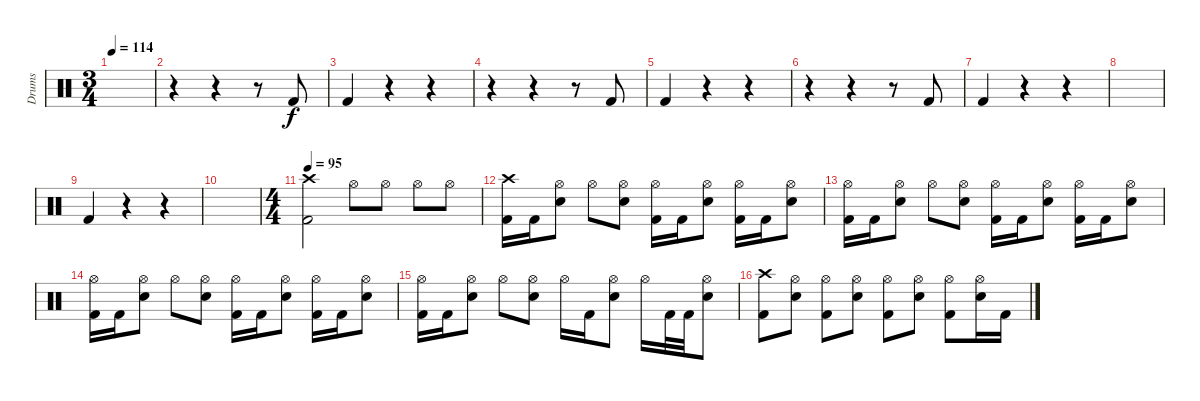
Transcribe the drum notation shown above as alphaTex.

\track ("Drums" "Drums") {instrument percussion}
\staff {score}
\articulation defaults
\ts (3 4)
\tempo 114
\clef neutral
\ks c
|
r.4 r.4 r.8 "Kick (hit) 2".8 |
"Kick (hit) 2".4 r.4 r.4 |
r.4 r.4 r.8 "Kick (hit) 2".8 |
"Kick (hit) 2".4 r.4 r.4 |
r.4 r.4 r.8 "Kick (hit) 2".8 |
"Kick (hit) 2".4 r.4 r.4 |
|
"Kick (hit) 2".4 r.4 r.4 |
|
\ts (4 4)
\tempo 95
("Crash high (hit)" "Kick (hit) 2").2 "Hi-Hat (open)".8 "Hi-Hat (open)".8 "Hi-Hat (open)".8 "Hi-Hat (open)".8 |
("Crash high (hit)" "Kick (hit) 2").16 "Kick (hit) 2".16 ("Hi-Hat (open)" "Snare (hit) 2").8 "Hi-Hat (open)".8 ("Hi-Hat (open)" "Snare (hit) 2").8 ("Hi-Hat (open)" "Kick (hit) 2").16 "Kick (hit) 2".16 ("Hi-Hat (open)" "Snare (hit) 2").8 ("Hi-Hat (open)" "Kick (hit) 2").16 "Kick (hit) 2".16 ("Hi-Hat (open)" "Snare (hit) 2").8 |
("Hi-Hat (open)" "Kick (hit) 2").16 "Kick (hit) 2".16 ("Hi-Hat (open)" "Snare (hit) 2").8 "Hi-Hat (open)".8 ("Hi-Hat (open)" "Snare (hit) 2").8 ("Hi-Hat (open)" "Kick (hit) 2").16 "Kick (hit) 2".16 ("Hi-Hat (open)" "Snare (hit) 2").8 ("Hi-Hat (open)" "Kick (hit) 2").16 "Kick (hit) 2".16 ("Hi-Hat (open)" "Snare (hit) 2").8 |
("Hi-Hat (open)" "Kick (hit) 2").16 "Kick (hit) 2".16 ("Hi-Hat (open)" "Snare (hit) 2").8 "Hi-Hat (open)".8 ("Hi-Hat (open)" "Snare (hit) 2").8 ("Hi-Hat (open)" "Kick (hit) 2").16 "Kick (hit) 2".16 ("Hi-Hat (open)" "Snare (hit) 2").8 ("Hi-Hat (open)" "Kick (hit) 2").16 "Kick (hit) 2".16 ("Hi-Hat (open)" "Snare (hit) 2").8 |
("Hi-Hat (open)" "Kick (hit) 2").16 "Kick (hit) 2".16 ("Hi-Hat (open)" "Snare (hit) 2").8 "Hi-Hat (open)".8 ("Hi-Hat (open)" "Snare (hit) 2").8 "Hi-Hat (open)".16 "Kick (hit) 2".16 ("Hi-Hat (open)" "Snare (hit) 2").8 "Hi-Hat (open)".16 "Kick (hit) 2".32 "Kick (hit) 2".32 ("Hi-Hat (open)" "Snare (hit) 2").8 |
("Crash high (hit)" "Kick (hit) 2").8 ("Hi-Hat (open)" "Snare (hit) 2").8 ("Hi-Hat (open)" "Kick (hit) 2").8 ("Hi-Hat (open)" "Snare (hit) 2").8 ("Hi-Hat (open)" "Kick (hit) 2").8 ("Hi-Hat (open)" "Snare (hit) 2").8 ("Hi-Hat (open)" "Kick (hit) 2").8 ("Hi-Hat (open)" "Snare (hit) 2").16 "Kick (hit) 2".16
